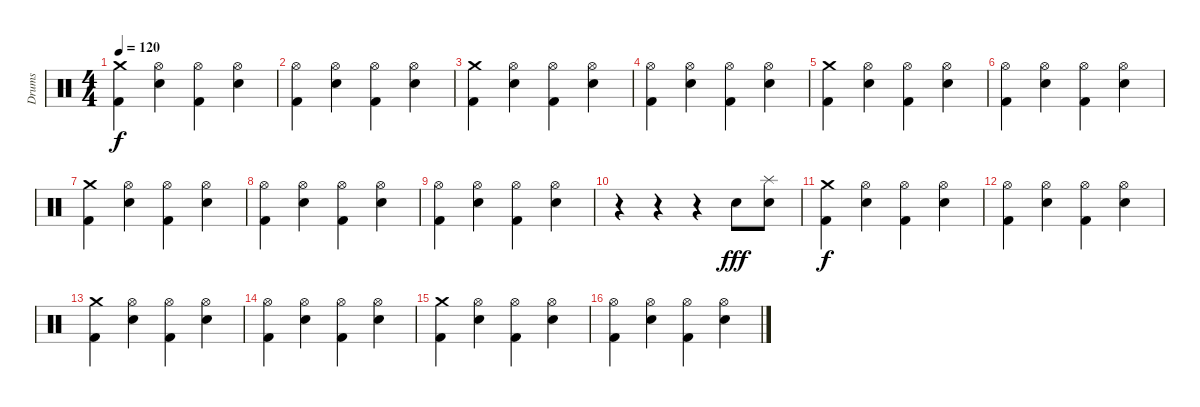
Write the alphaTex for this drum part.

\track ("Drums" "Drums") {instrument percussion}
\staff {score}
\articulation defaults
\ts (4 4)
\tempo 120
\clef neutral
\ks c
("Crash medium (hit)" "Kick (hit) 2").4{dy f} ("Hi-Hat (open)" "Snare (hit) 2").4 ("Hi-Hat (open)" "Kick (hit) 2").4 ("Hi-Hat (open)" "Snare (hit) 2").4 |
("Hi-Hat (open)" "Kick (hit) 2").4 ("Hi-Hat (open)" "Snare (hit) 2").4 ("Hi-Hat (open)" "Kick (hit) 2").4 ("Hi-Hat (open)" "Snare (hit) 2").4 |
("Crash medium (hit)" "Kick (hit) 2").4 ("Hi-Hat (open)" "Snare (hit) 2").4 ("Hi-Hat (open)" "Kick (hit) 2").4 ("Hi-Hat (open)" "Snare (hit) 2").4 |
("Hi-Hat (open)" "Kick (hit) 2").4 ("Hi-Hat (open)" "Snare (hit) 2").4 ("Hi-Hat (open)" "Kick (hit) 2").4 ("Hi-Hat (open)" "Snare (hit) 2").4 |
("Crash medium (hit)" "Kick (hit) 2").4 ("Hi-Hat (open)" "Snare (hit) 2").4 ("Hi-Hat (open)" "Kick (hit) 2").4 ("Hi-Hat (open)" "Snare (hit) 2").4 |
("Hi-Hat (open)" "Kick (hit) 2").4 ("Hi-Hat (open)" "Snare (hit) 2").4 ("Hi-Hat (open)" "Kick (hit) 2").4 ("Hi-Hat (open)" "Snare (hit) 2").4 |
("Crash medium (hit)" "Kick (hit) 2").4 ("Hi-Hat (open)" "Snare (hit) 2").4 ("Hi-Hat (open)" "Kick (hit) 2").4 ("Hi-Hat (open)" "Snare (hit) 2").4 |
("Hi-Hat (open)" "Kick (hit) 2").4 ("Hi-Hat (open)" "Snare (hit) 2").4 ("Hi-Hat (open)" "Kick (hit) 2").4 ("Hi-Hat (open)" "Snare (hit) 2").4 |
("Hi-Hat (open)" "Kick (hit) 2").4 ("Hi-Hat (open)" "Snare (hit) 2").4 ("Hi-Hat (open)" "Kick (hit) 2").4 ("Hi-Hat (open)" "Snare (hit) 2").4 |
r.4 r.4 r.4 "Snare (hit) 2".8{dy fff} ("Splash (hit)" "Snare (hit) 2").8 |
("Crash medium (hit)" "Kick (hit) 2").4{dy f} ("Hi-Hat (open)" "Snare (hit) 2").4 ("Hi-Hat (open)" "Kick (hit) 2").4 ("Hi-Hat (open)" "Snare (hit) 2").4 |
("Hi-Hat (open)" "Kick (hit) 2").4 ("Hi-Hat (open)" "Snare (hit) 2").4 ("Hi-Hat (open)" "Kick (hit) 2").4 ("Hi-Hat (open)" "Snare (hit) 2").4 |
("Crash medium (hit)" "Kick (hit) 2").4 ("Hi-Hat (open)" "Snare (hit) 2").4 ("Hi-Hat (open)" "Kick (hit) 2").4 ("Hi-Hat (open)" "Snare (hit) 2").4 |
("Hi-Hat (open)" "Kick (hit) 2").4 ("Hi-Hat (open)" "Snare (hit) 2").4 ("Hi-Hat (open)" "Kick (hit) 2").4 ("Hi-Hat (open)" "Snare (hit) 2").4 |
("Crash medium (hit)" "Kick (hit) 2").4 ("Hi-Hat (open)" "Snare (hit) 2").4 ("Hi-Hat (open)" "Kick (hit) 2").4 ("Hi-Hat (open)" "Snare (hit) 2").4 |
("Hi-Hat (open)" "Kick (hit) 2").4 ("Hi-Hat (open)" "Snare (hit) 2").4 ("Hi-Hat (open)" "Kick (hit) 2").4 ("Hi-Hat (open)" "Snare (hit) 2").4
